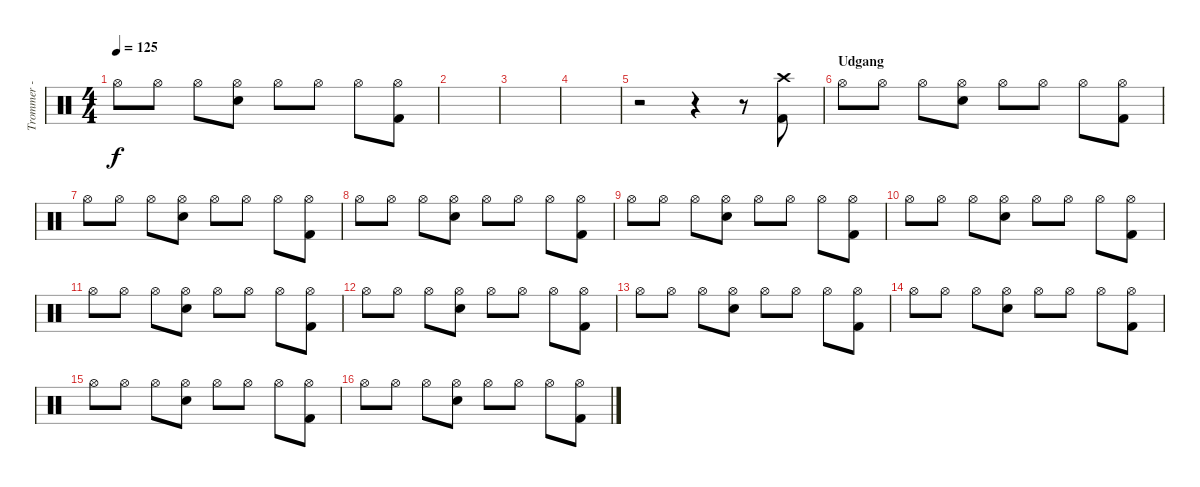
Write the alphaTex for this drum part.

\track ("Trommer - Alex" "Trommer - ") {instrument percussion}
\staff {score}
\articulation defaults
\ts (4 4)
\tempo 125
\clef neutral
\ks c "Hi-Hat (open)".8{dy f} "Hi-Hat (open)".8 "Hi-Hat (open)".8
("Hi-Hat (open)" "Snare (hit) 2").8 "Hi-Hat (open)".8 "Hi-Hat (open)".8 "Hi-Hat (open)".8 ("Hi-Hat (open)" "Kick (hit) 2").8 |
|
|
|
r.2 r.4 r.8 ("Crash high (hit)" "Kick (hit) 2").8 |
\section ("" "Udgang")
"Hi-Hat (open)".8 "Hi-Hat (open)".8 "Hi-Hat (open)".8 ("Hi-Hat (open)" "Snare (hit) 2").8 "Hi-Hat (open)".8 "Hi-Hat (open)".8 "Hi-Hat (open)".8 ("Hi-Hat (open)" "Kick (hit) 2").8 |
"Hi-Hat (open)".8 "Hi-Hat (open)".8 "Hi-Hat (open)".8 ("Hi-Hat (open)" "Snare (hit) 2").8 "Hi-Hat (open)".8 "Hi-Hat (open)".8 "Hi-Hat (open)".8 ("Hi-Hat (open)" "Kick (hit) 2").8 |
"Hi-Hat (open)".8 "Hi-Hat (open)".8 "Hi-Hat (open)".8 ("Hi-Hat (open)" "Snare (hit) 2").8 "Hi-Hat (open)".8 "Hi-Hat (open)".8 "Hi-Hat (open)".8 ("Hi-Hat (open)" "Kick (hit) 2").8 |
"Hi-Hat (open)".8 "Hi-Hat (open)".8 "Hi-Hat (open)".8 ("Hi-Hat (open)" "Snare (hit) 2").8 "Hi-Hat (open)".8 "Hi-Hat (open)".8 "Hi-Hat (open)".8 ("Hi-Hat (open)" "Kick (hit) 2").8 |
"Hi-Hat (open)".8 "Hi-Hat (open)".8 "Hi-Hat (open)".8 ("Hi-Hat (open)" "Snare (hit) 2").8 "Hi-Hat (open)".8 "Hi-Hat (open)".8 "Hi-Hat (open)".8 ("Hi-Hat (open)" "Kick (hit) 2").8 |
"Hi-Hat (open)".8 "Hi-Hat (open)".8 "Hi-Hat (open)".8 ("Hi-Hat (open)" "Snare (hit) 2").8 "Hi-Hat (open)".8 "Hi-Hat (open)".8 "Hi-Hat (open)".8 ("Hi-Hat (open)" "Kick (hit) 2").8 |
"Hi-Hat (open)".8 "Hi-Hat (open)".8 "Hi-Hat (open)".8 ("Hi-Hat (open)" "Snare (hit) 2").8 "Hi-Hat (open)".8 "Hi-Hat (open)".8 "Hi-Hat (open)".8 ("Hi-Hat (open)" "Kick (hit) 2").8 |
"Hi-Hat (open)".8 "Hi-Hat (open)".8 "Hi-Hat (open)".8 ("Hi-Hat (open)" "Snare (hit) 2").8 "Hi-Hat (open)".8 "Hi-Hat (open)".8 "Hi-Hat (open)".8 ("Hi-Hat (open)" "Kick (hit) 2").8 |
"Hi-Hat (open)".8 "Hi-Hat (open)".8 "Hi-Hat (open)".8 ("Hi-Hat (open)" "Snare (hit) 2").8 "Hi-Hat (open)".8 "Hi-Hat (open)".8 "Hi-Hat (open)".8 ("Hi-Hat (open)" "Kick (hit) 2").8 |
"Hi-Hat (open)".8 "Hi-Hat (open)".8 "Hi-Hat (open)".8 ("Hi-Hat (open)" "Snare (hit) 2").8 "Hi-Hat (open)".8 "Hi-Hat (open)".8 "Hi-Hat (open)".8 ("Hi-Hat (open)" "Kick (hit) 2").8 |
"Hi-Hat (open)".8 "Hi-Hat (open)".8 "Hi-Hat (open)".8 ("Hi-Hat (open)" "Snare (hit) 2").8 "Hi-Hat (open)".8 "Hi-Hat (open)".8 "Hi-Hat (open)".8 ("Hi-Hat (open)" "Kick (hit) 2").8
